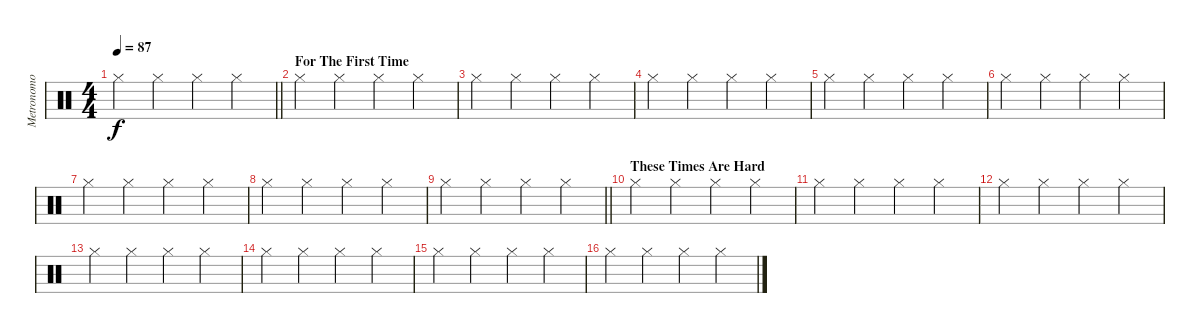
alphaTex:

\track ("Metronomo" "Metronomo") {instrument percussion}
\staff {score}
\articulation defaults
\ts (4 4)
\tempo 87
\clef neutral
\barLineRight lightlight
\ks c "Hi-Hat (closed)".4{dy f} "Hi-Hat (closed)".4 "Hi-Hat (closed)".4 "Hi-Hat (closed)".4
|
\section ("" "For The First Time")
"Hi-Hat (closed)".4 "Hi-Hat (closed)".4 "Hi-Hat (closed)".4 "Hi-Hat (closed)".4 |
"Hi-Hat (closed)".4 "Hi-Hat (closed)".4 "Hi-Hat (closed)".4 "Hi-Hat (closed)".4 |
"Hi-Hat (closed)".4 "Hi-Hat (closed)".4 "Hi-Hat (closed)".4 "Hi-Hat (closed)".4 |
"Hi-Hat (closed)".4 "Hi-Hat (closed)".4 "Hi-Hat (closed)".4 "Hi-Hat (closed)".4 |
"Hi-Hat (closed)".4 "Hi-Hat (closed)".4 "Hi-Hat (closed)".4 "Hi-Hat (closed)".4 |
"Hi-Hat (closed)".4 "Hi-Hat (closed)".4 "Hi-Hat (closed)".4 "Hi-Hat (closed)".4 |
"Hi-Hat (closed)".4 "Hi-Hat (closed)".4 "Hi-Hat (closed)".4 "Hi-Hat (closed)".4 |
\barLineRight lightlight "Hi-Hat (closed)".4 "Hi-Hat (closed)".4 "Hi-Hat (closed)".4 "Hi-Hat (closed)".4
|
\section ("" "These Times Are Hard")
"Hi-Hat (closed)".4 "Hi-Hat (closed)".4 "Hi-Hat (closed)".4 "Hi-Hat (closed)".4 |
"Hi-Hat (closed)".4 "Hi-Hat (closed)".4 "Hi-Hat (closed)".4 "Hi-Hat (closed)".4 |
"Hi-Hat (closed)".4 "Hi-Hat (closed)".4 "Hi-Hat (closed)".4 "Hi-Hat (closed)".4 |
"Hi-Hat (closed)".4 "Hi-Hat (closed)".4 "Hi-Hat (closed)".4 "Hi-Hat (closed)".4 |
"Hi-Hat (closed)".4 "Hi-Hat (closed)".4 "Hi-Hat (closed)".4 "Hi-Hat (closed)".4 |
"Hi-Hat (closed)".4 "Hi-Hat (closed)".4 "Hi-Hat (closed)".4 "Hi-Hat (closed)".4 |
"Hi-Hat (closed)".4 "Hi-Hat (closed)".4 "Hi-Hat (closed)".4 "Hi-Hat (closed)".4
